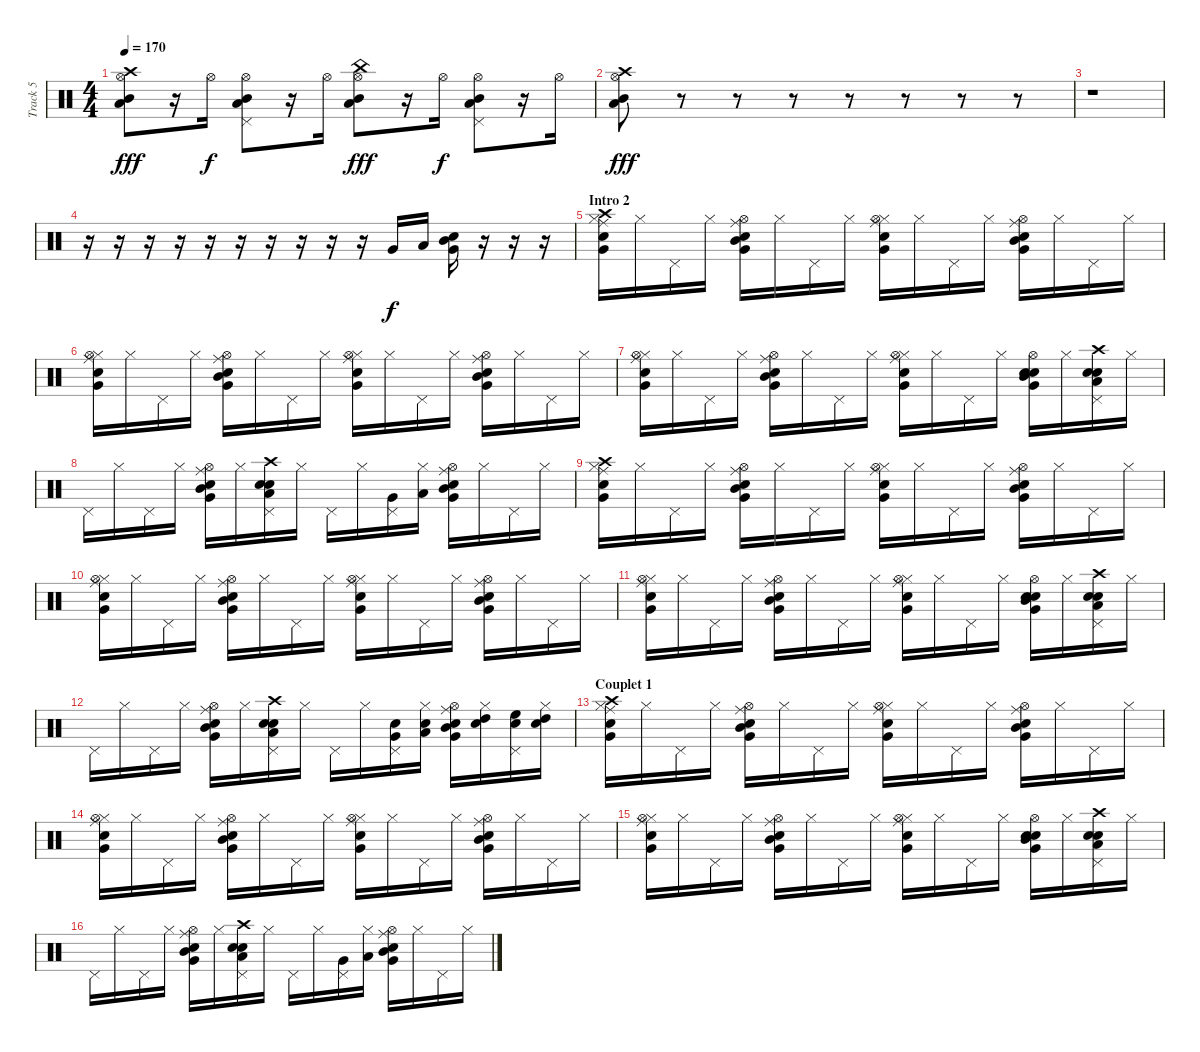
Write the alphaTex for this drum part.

\track ("Track 5" "Track 5") {instrument percussion}
\staff {score}
\articulation defaults
\ts (4 4)
\tempo 170
\clef neutral
\ks c
("Hi-Hat (open)" "Low Tom (hit)" "Mid Tom (hit)" "Crash high (hit)").8{dy fff} r.16 "Hi-Hat (open)".16{dy f} ("Hi-Hat (open)" "Low Tom (hit)" "Mid Tom (hit)" "Pedal Hi-Hat (hit)").8 r.16 "Hi-Hat (open)".16 ("Hi-Hat (open)" "Low Tom (hit)" "Mid Tom (hit)" "China (hit)").8{dy fff} r.16 "Hi-Hat (open)".16{dy f} ("Hi-Hat (open)" "Low Tom (hit)" "Mid Tom (hit)" "Pedal Hi-Hat (hit)").8 r.16 "Hi-Hat (open)".16 |
("Hi-Hat (open)" "Low Tom (hit)" "Mid Tom (hit)" "Crash high (hit)").8{dy fff} r.8 r.8 r.8 r.8 r.8 r.8 r.8 |
r.1 |
r.16 r.16 r.16 r.16 r.16 r.16 r.16 r.16 r.16 r.16 "Very Low Tom (hit)".16{dy f} "Low Tom (hit)".16 ("Very Low Tom (hit)" "Mid Tom (hit)" "Electric Snare (hit)").16 r.16 r.16 r.16 |
\section ("" "Intro 2")
("Very Low Tom (hit)" "Snare (hit) 2" "Hi-Hat (closed)" "Ride (middle)" "Crash high (hit)").16 "Hi-Hat (closed)".16 "Pedal Hi-Hat (hit)".16 "Hi-Hat (closed)".16 ("Ride (middle)" "Very Low Tom (hit)" "Mid Tom (hit)" "Electric Snare (hit)" "Hi-Hat (open)").16 "Hi-Hat (closed)".16 "Pedal Hi-Hat (hit)".16 "Hi-Hat (closed)".16 ("Very Low Tom (hit)" "Snare (hit) 2" "Hi-Hat (closed)" "Ride (middle)" "Hi-Hat (open)").16 "Hi-Hat (closed)".16 "Pedal Hi-Hat (hit)".16 "Hi-Hat (closed)".16 ("Ride (middle)" "Very Low Tom (hit)" "Mid Tom (hit)" "Electric Snare (hit)" "Hi-Hat (open)").16 "Hi-Hat (closed)".16 "Pedal Hi-Hat (hit)".16 "Hi-Hat (closed)".16 |
("Very Low Tom (hit)" "Snare (hit) 2" "Hi-Hat (closed)" "Ride (middle)" "Hi-Hat (open)").16 "Hi-Hat (closed)".16 "Pedal Hi-Hat (hit)".16 "Hi-Hat (closed)".16 ("Ride (middle)" "Very Low Tom (hit)" "Mid Tom (hit)" "Electric Snare (hit)" "Hi-Hat (open)").16 "Hi-Hat (closed)".16 "Pedal Hi-Hat (hit)".16 "Hi-Hat (closed)".16 ("Very Low Tom (hit)" "Snare (hit) 2" "Hi-Hat (closed)" "Ride (middle)" "Hi-Hat (open)").16 "Hi-Hat (closed)".16 "Pedal Hi-Hat (hit)".16 "Hi-Hat (closed)".16 ("Ride (middle)" "Very Low Tom (hit)" "Mid Tom (hit)" "Electric Snare (hit)" "Hi-Hat (open)").16 "Hi-Hat (closed)".16 "Pedal Hi-Hat (hit)".16 "Hi-Hat (closed)".16 |
("Very Low Tom (hit)" "Snare (hit) 2" "Hi-Hat (closed)" "Ride (middle)" "Hi-Hat (open)").16 "Hi-Hat (closed)".16 "Pedal Hi-Hat (hit)".16 "Hi-Hat (closed)".16 ("Ride (middle)" "Very Low Tom (hit)" "Mid Tom (hit)" "Electric Snare (hit)" "Hi-Hat (open)").16 "Hi-Hat (closed)".16 "Pedal Hi-Hat (hit)".16 "Hi-Hat (closed)".16 ("Very Low Tom (hit)" "Snare (hit) 2" "Hi-Hat (closed)" "Ride (middle)" "Hi-Hat (open)").16 "Hi-Hat (closed)".16 "Pedal Hi-Hat (hit)".16 "Hi-Hat (closed)".16 ("Hi-Hat (open)" "Very Low Tom (hit)" "Mid Tom (hit)" "Electric Snare (hit)" "Snare (hit) 2").16 "Hi-Hat (closed)".16 ("Pedal Hi-Hat (hit)" "Low Tom (hit)" "Electric Snare (hit)" "Snare (hit) 2" "Crash high (hit)").16 "Hi-Hat (closed)".16 |
"Pedal Hi-Hat (hit)".16 "Hi-Hat (closed)".16 "Pedal Hi-Hat (hit)".16 "Hi-Hat (closed)".16 ("Ride (middle)" "Very Low Tom (hit)" "Mid Tom (hit)" "Electric Snare (hit)" "Hi-Hat (open)").16 "Hi-Hat (closed)".16 ("Pedal Hi-Hat (hit)" "Low Tom (hit)" "Electric Snare (hit)" "Snare (hit) 2" "Crash high (hit)").16 "Hi-Hat (closed)".16 "Pedal Hi-Hat (hit)".16 "Hi-Hat (closed)".16 ("Pedal Hi-Hat (hit)" "Very Low Tom (hit)").16 ("Hi-Hat (closed)" "Low Tom (hit)").16 ("Ride (middle)" "Very Low Tom (hit)" "Mid Tom (hit)" "Electric Snare (hit)" "Hi-Hat (open)").16 "Hi-Hat (closed)".16 "Pedal Hi-Hat (hit)".16 "Hi-Hat (closed)".16 |
("Very Low Tom (hit)" "Snare (hit) 2" "Hi-Hat (closed)" "Ride (middle)" "Crash high (hit)").16 "Hi-Hat (closed)".16 "Pedal Hi-Hat (hit)".16 "Hi-Hat (closed)".16 ("Ride (middle)" "Very Low Tom (hit)" "Mid Tom (hit)" "Electric Snare (hit)" "Hi-Hat (open)").16 "Hi-Hat (closed)".16 "Pedal Hi-Hat (hit)".16 "Hi-Hat (closed)".16 ("Very Low Tom (hit)" "Snare (hit) 2" "Hi-Hat (closed)" "Ride (middle)" "Hi-Hat (open)").16 "Hi-Hat (closed)".16 "Pedal Hi-Hat (hit)".16 "Hi-Hat (closed)".16 ("Ride (middle)" "Very Low Tom (hit)" "Mid Tom (hit)" "Electric Snare (hit)" "Hi-Hat (open)").16 "Hi-Hat (closed)".16 "Pedal Hi-Hat (hit)".16 "Hi-Hat (closed)".16 |
("Very Low Tom (hit)" "Snare (hit) 2" "Hi-Hat (closed)" "Ride (middle)" "Hi-Hat (open)").16 "Hi-Hat (closed)".16 "Pedal Hi-Hat (hit)".16 "Hi-Hat (closed)".16 ("Ride (middle)" "Very Low Tom (hit)" "Mid Tom (hit)" "Electric Snare (hit)" "Hi-Hat (open)").16 "Hi-Hat (closed)".16 "Pedal Hi-Hat (hit)".16 "Hi-Hat (closed)".16 ("Very Low Tom (hit)" "Snare (hit) 2" "Hi-Hat (closed)" "Ride (middle)" "Hi-Hat (open)").16 "Hi-Hat (closed)".16 "Pedal Hi-Hat (hit)".16 "Hi-Hat (closed)".16 ("Ride (middle)" "Very Low Tom (hit)" "Mid Tom (hit)" "Electric Snare (hit)" "Hi-Hat (open)").16 "Hi-Hat (closed)".16 "Pedal Hi-Hat (hit)".16 "Hi-Hat (closed)".16 |
("Very Low Tom (hit)" "Snare (hit) 2" "Hi-Hat (closed)" "Ride (middle)" "Hi-Hat (open)").16 "Hi-Hat (closed)".16 "Pedal Hi-Hat (hit)".16 "Hi-Hat (closed)".16 ("Ride (middle)" "Very Low Tom (hit)" "Mid Tom (hit)" "Electric Snare (hit)" "Hi-Hat (open)").16 "Hi-Hat (closed)".16 "Pedal Hi-Hat (hit)".16 "Hi-Hat (closed)".16 ("Very Low Tom (hit)" "Snare (hit) 2" "Hi-Hat (closed)" "Ride (middle)" "Hi-Hat (open)").16 "Hi-Hat (closed)".16 "Pedal Hi-Hat (hit)".16 "Hi-Hat (closed)".16 ("Hi-Hat (open)" "Very Low Tom (hit)" "Mid Tom (hit)" "Electric Snare (hit)" "Snare (hit) 2").16 "Hi-Hat (closed)".16 ("Pedal Hi-Hat (hit)" "Low Tom (hit)" "Electric Snare (hit)" "Snare (hit) 2" "Crash high (hit)").16 "Hi-Hat (closed)".16 |
"Pedal Hi-Hat (hit)".16 "Hi-Hat (closed)".16 "Pedal Hi-Hat (hit)".16 "Hi-Hat (closed)".16 ("Ride (middle)" "Very Low Tom (hit)" "Mid Tom (hit)" "Electric Snare (hit)" "Hi-Hat (open)").16 "Hi-Hat (closed)".16 ("Pedal Hi-Hat (hit)" "Low Tom (hit)" "Electric Snare (hit)" "Snare (hit) 2" "Crash high (hit)").16 "Hi-Hat (closed)".16 "Pedal Hi-Hat (hit)".16 "Hi-Hat (closed)".16 ("Pedal Hi-Hat (hit)" "Very Low Tom (hit)" "Electric Snare (hit)").16 ("Hi-Hat (closed)" "Low Tom (hit)" "Snare (hit) 2").16 ("Ride (middle)" "Very Low Tom (hit)" "Mid Tom (hit)" "Electric Snare (hit)" "Hi-Hat (open)").16 ("Hi-Hat (closed)" "High Tom (hit)" "Snare (hit) 2").16 ("Pedal Hi-Hat (hit)" "High Floor Tom (hit)" "Electric Snare (hit)").16 ("Hi-Hat (closed)" "High Tom (hit)" "Snare (hit) 2").16 |
\section ("" "Couplet 1")
("Very Low Tom (hit)" "Snare (hit) 2" "Hi-Hat (closed)" "Ride (middle)" "Crash high (hit)").16 "Hi-Hat (closed)".16 "Pedal Hi-Hat (hit)".16 "Hi-Hat (closed)".16 ("Ride (middle)" "Very Low Tom (hit)" "Mid Tom (hit)" "Electric Snare (hit)" "Hi-Hat (open)").16 "Hi-Hat (closed)".16 "Pedal Hi-Hat (hit)".16 "Hi-Hat (closed)".16 ("Very Low Tom (hit)" "Snare (hit) 2" "Hi-Hat (closed)" "Ride (middle)" "Hi-Hat (open)").16 "Hi-Hat (closed)".16 "Pedal Hi-Hat (hit)".16 "Hi-Hat (closed)".16 ("Ride (middle)" "Very Low Tom (hit)" "Mid Tom (hit)" "Electric Snare (hit)" "Hi-Hat (open)").16 "Hi-Hat (closed)".16 "Pedal Hi-Hat (hit)".16 "Hi-Hat (closed)".16 |
("Very Low Tom (hit)" "Snare (hit) 2" "Hi-Hat (closed)" "Ride (middle)" "Hi-Hat (open)").16 "Hi-Hat (closed)".16 "Pedal Hi-Hat (hit)".16 "Hi-Hat (closed)".16 ("Ride (middle)" "Very Low Tom (hit)" "Mid Tom (hit)" "Electric Snare (hit)" "Hi-Hat (open)").16 "Hi-Hat (closed)".16 "Pedal Hi-Hat (hit)".16 "Hi-Hat (closed)".16 ("Very Low Tom (hit)" "Snare (hit) 2" "Hi-Hat (closed)" "Ride (middle)" "Hi-Hat (open)").16 "Hi-Hat (closed)".16 "Pedal Hi-Hat (hit)".16 "Hi-Hat (closed)".16 ("Ride (middle)" "Very Low Tom (hit)" "Mid Tom (hit)" "Electric Snare (hit)" "Hi-Hat (open)").16 "Hi-Hat (closed)".16 "Pedal Hi-Hat (hit)".16 "Hi-Hat (closed)".16 |
("Very Low Tom (hit)" "Snare (hit) 2" "Hi-Hat (closed)" "Ride (middle)" "Hi-Hat (open)").16 "Hi-Hat (closed)".16 "Pedal Hi-Hat (hit)".16 "Hi-Hat (closed)".16 ("Ride (middle)" "Very Low Tom (hit)" "Mid Tom (hit)" "Electric Snare (hit)" "Hi-Hat (open)").16 "Hi-Hat (closed)".16 "Pedal Hi-Hat (hit)".16 "Hi-Hat (closed)".16 ("Very Low Tom (hit)" "Snare (hit) 2" "Hi-Hat (closed)" "Ride (middle)" "Hi-Hat (open)").16 "Hi-Hat (closed)".16 "Pedal Hi-Hat (hit)".16 "Hi-Hat (closed)".16 ("Hi-Hat (open)" "Very Low Tom (hit)" "Mid Tom (hit)" "Electric Snare (hit)" "Snare (hit) 2").16 "Hi-Hat (closed)".16 ("Pedal Hi-Hat (hit)" "Low Tom (hit)" "Electric Snare (hit)" "Snare (hit) 2" "Crash high (hit)").16 "Hi-Hat (closed)".16 |
"Pedal Hi-Hat (hit)".16 "Hi-Hat (closed)".16 "Pedal Hi-Hat (hit)".16 "Hi-Hat (closed)".16 ("Ride (middle)" "Very Low Tom (hit)" "Mid Tom (hit)" "Electric Snare (hit)" "Hi-Hat (open)").16 "Hi-Hat (closed)".16 ("Pedal Hi-Hat (hit)" "Low Tom (hit)" "Electric Snare (hit)" "Snare (hit) 2" "Crash high (hit)").16 "Hi-Hat (closed)".16 "Pedal Hi-Hat (hit)".16 "Hi-Hat (closed)".16 ("Pedal Hi-Hat (hit)" "Very Low Tom (hit)").16 ("Hi-Hat (closed)" "Low Tom (hit)").16 ("Ride (middle)" "Very Low Tom (hit)" "Mid Tom (hit)" "Electric Snare (hit)" "Hi-Hat (open)").16 "Hi-Hat (closed)".16 "Pedal Hi-Hat (hit)".16 "Hi-Hat (closed)".16
